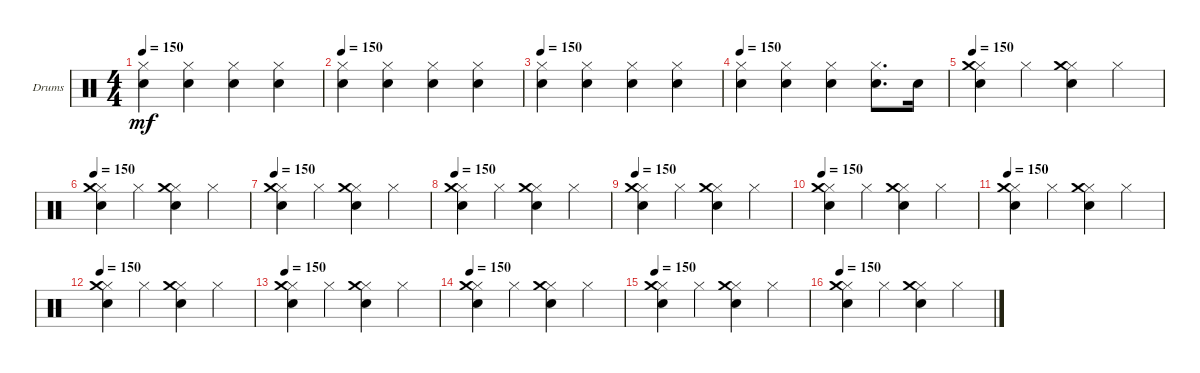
\bracketExtendMode groupsimilarinstruments
\firstSystemTrackNameOrientation horizontal
\otherSystemsTrackNameOrientation horizontal
\track ("Drums" "Drums") {instrument percussion}
\staff {score}
\articulation defaults
\ts (4 4)
\tempo 150
\clef neutral
\ks c
("Snare (hit) 2" "Hi-Hat (closed)").4{dy mf} ("Snare (hit) 2" "Hi-Hat (closed)").4 ("Snare (hit) 2" "Hi-Hat (closed)").4 ("Snare (hit) 2" "Hi-Hat (closed)").4 |
\tempo 150
("Snare (hit) 2" "Hi-Hat (closed)").4 ("Snare (hit) 2" "Hi-Hat (closed)").4 ("Snare (hit) 2" "Hi-Hat (closed)").4 ("Snare (hit) 2" "Hi-Hat (closed)").4 |
\tempo 150
("Snare (hit) 2" "Hi-Hat (closed)").4 ("Snare (hit) 2" "Hi-Hat (closed)").4 ("Snare (hit) 2" "Hi-Hat (closed)").4 ("Snare (hit) 2" "Hi-Hat (closed)").4 |
\tempo 150
("Snare (hit) 2" "Hi-Hat (closed)").4 ("Snare (hit) 2" "Hi-Hat (closed)").4 ("Snare (hit) 2" "Hi-Hat (closed)").4 ("Snare (hit) 2" "Hi-Hat (closed)").8{d} "Snare (hit) 2".16 |
\tempo 150
("Snare (hit) 2" "Hi-Hat (closed)" "Crash medium (hit)").4 "Hi-Hat (closed)".4 ("Snare (hit) 2" "Hi-Hat (closed)" "Crash medium (hit)").4 "Hi-Hat (closed)".4 |
\tempo 150
("Snare (hit) 2" "Hi-Hat (closed)" "Crash medium (hit)").4 "Hi-Hat (closed)".4 ("Snare (hit) 2" "Hi-Hat (closed)" "Crash medium (hit)").4 "Hi-Hat (closed)".4 |
\tempo 150
("Snare (hit) 2" "Hi-Hat (closed)" "Crash medium (hit)").4 "Hi-Hat (closed)".4 ("Snare (hit) 2" "Hi-Hat (closed)" "Crash medium (hit)").4 "Hi-Hat (closed)".4 |
\tempo 150
("Snare (hit) 2" "Hi-Hat (closed)" "Crash medium (hit)").4 "Hi-Hat (closed)".4 ("Snare (hit) 2" "Hi-Hat (closed)" "Crash medium (hit)").4 "Hi-Hat (closed)".4 |
\tempo 150
("Snare (hit) 2" "Hi-Hat (closed)" "Crash medium (hit)").4 "Hi-Hat (closed)".4 ("Snare (hit) 2" "Hi-Hat (closed)" "Crash medium (hit)").4 "Hi-Hat (closed)".4 |
\tempo 150
("Snare (hit) 2" "Hi-Hat (closed)" "Crash medium (hit)").4 "Hi-Hat (closed)".4 ("Snare (hit) 2" "Hi-Hat (closed)" "Crash medium (hit)").4 "Hi-Hat (closed)".4 |
\tempo 150
("Snare (hit) 2" "Hi-Hat (closed)" "Crash medium (hit)").4 "Hi-Hat (closed)".4 ("Snare (hit) 2" "Hi-Hat (closed)" "Crash medium (hit)").4 "Hi-Hat (closed)".4 |
\tempo 150
("Snare (hit) 2" "Hi-Hat (closed)" "Crash medium (hit)").4 "Hi-Hat (closed)".4 ("Snare (hit) 2" "Hi-Hat (closed)" "Crash medium (hit)").4 "Hi-Hat (closed)".4 |
\tempo 150
("Snare (hit) 2" "Hi-Hat (closed)" "Crash medium (hit)").4 "Hi-Hat (closed)".4 ("Snare (hit) 2" "Hi-Hat (closed)" "Crash medium (hit)").4 "Hi-Hat (closed)".4 |
\tempo 150
("Snare (hit) 2" "Hi-Hat (closed)" "Crash medium (hit)").4 "Hi-Hat (closed)".4 ("Snare (hit) 2" "Hi-Hat (closed)" "Crash medium (hit)").4 "Hi-Hat (closed)".4 |
\tempo 150
("Snare (hit) 2" "Hi-Hat (closed)" "Crash medium (hit)").4 "Hi-Hat (closed)".4 ("Snare (hit) 2" "Hi-Hat (closed)" "Crash medium (hit)").4 "Hi-Hat (closed)".4 |
\tempo 150
("Snare (hit) 2" "Hi-Hat (closed)" "Crash medium (hit)").4 "Hi-Hat (closed)".4 ("Snare (hit) 2" "Hi-Hat (closed)" "Crash medium (hit)").4 "Hi-Hat (closed)".4
